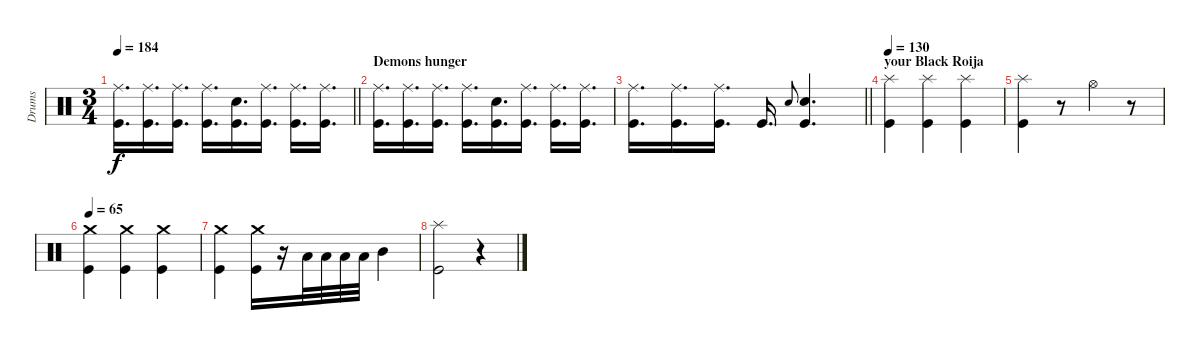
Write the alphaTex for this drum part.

\track ("Drums" "Drums") {instrument percussion}
\staff {score}
\articulation defaults
\ts (3 4)
\tempo 184
\clef neutral
\barLineRight lightlight
\ks c
("Ride (middle)" "Kick (hit)").16{d dy f} ("Ride (middle)" "Kick (hit)").16{d} ("Ride (middle)" "Kick (hit)").16{d} ("Ride (middle)" "Kick (hit)").16{d} ("Snare (hit) 2" "Kick (hit)").16{d} ("Ride (middle)" "Kick (hit)").16{d} ("Ride (middle)" "Kick (hit)").16{d} ("Ride (middle)" "Kick (hit)").16{d} |
\section ("" "Demons hunger ")
("Ride (middle)" "Kick (hit)").16{d} ("Ride (middle)" "Kick (hit)").16{d} ("Ride (middle)" "Kick (hit)").16{d} ("Ride (middle)" "Kick (hit)").16{d} ("Snare (hit) 2" "Kick (hit)").16{d} ("Ride (middle)" "Kick (hit)").16{d} ("Ride (middle)" "Kick (hit)").16{d} ("Ride (middle)" "Kick (hit)").16{d} |
\barLineRight lightlight
("Ride (middle)" "Kick (hit)").16{d} ("Ride (middle)" "Kick (hit)").16{d} ("Ride (middle)" "Kick (hit)").16{d} "Kick (hit)".16{d} "Snare (hit) 2".8{gr onbeat} ("Snare (hit) 2" "Kick (hit)").4{d} |
\section ("" "your Black Roija ")
\tempo 130
("Splash (hit)" "Kick (hit)").4 ("Splash (hit)" "Kick (hit)").4 ("Splash (hit)" "Kick (hit)").4 |
("Splash (hit)" "Kick (hit)").4 r.8 "Hi-Hat (open)".4 r.8 |
\tempo 65
("Crash medium (hit)" "Kick (hit)").4 ("Crash medium (hit)" "Kick (hit)").4 ("Crash medium (hit)" "Kick (hit)").4 |
("Crash medium (hit)" "Kick (hit)").4 ("Crash medium (hit)" "Kick (hit)").16 r.16 "Low Tom (hit)".32 "Low Tom (hit)".32 "Low Tom (hit)".32 "Low Tom (hit)".32 "Mid Tom (hit)".4 |
("Splash (hit)" "Kick (hit)").2 r.4
